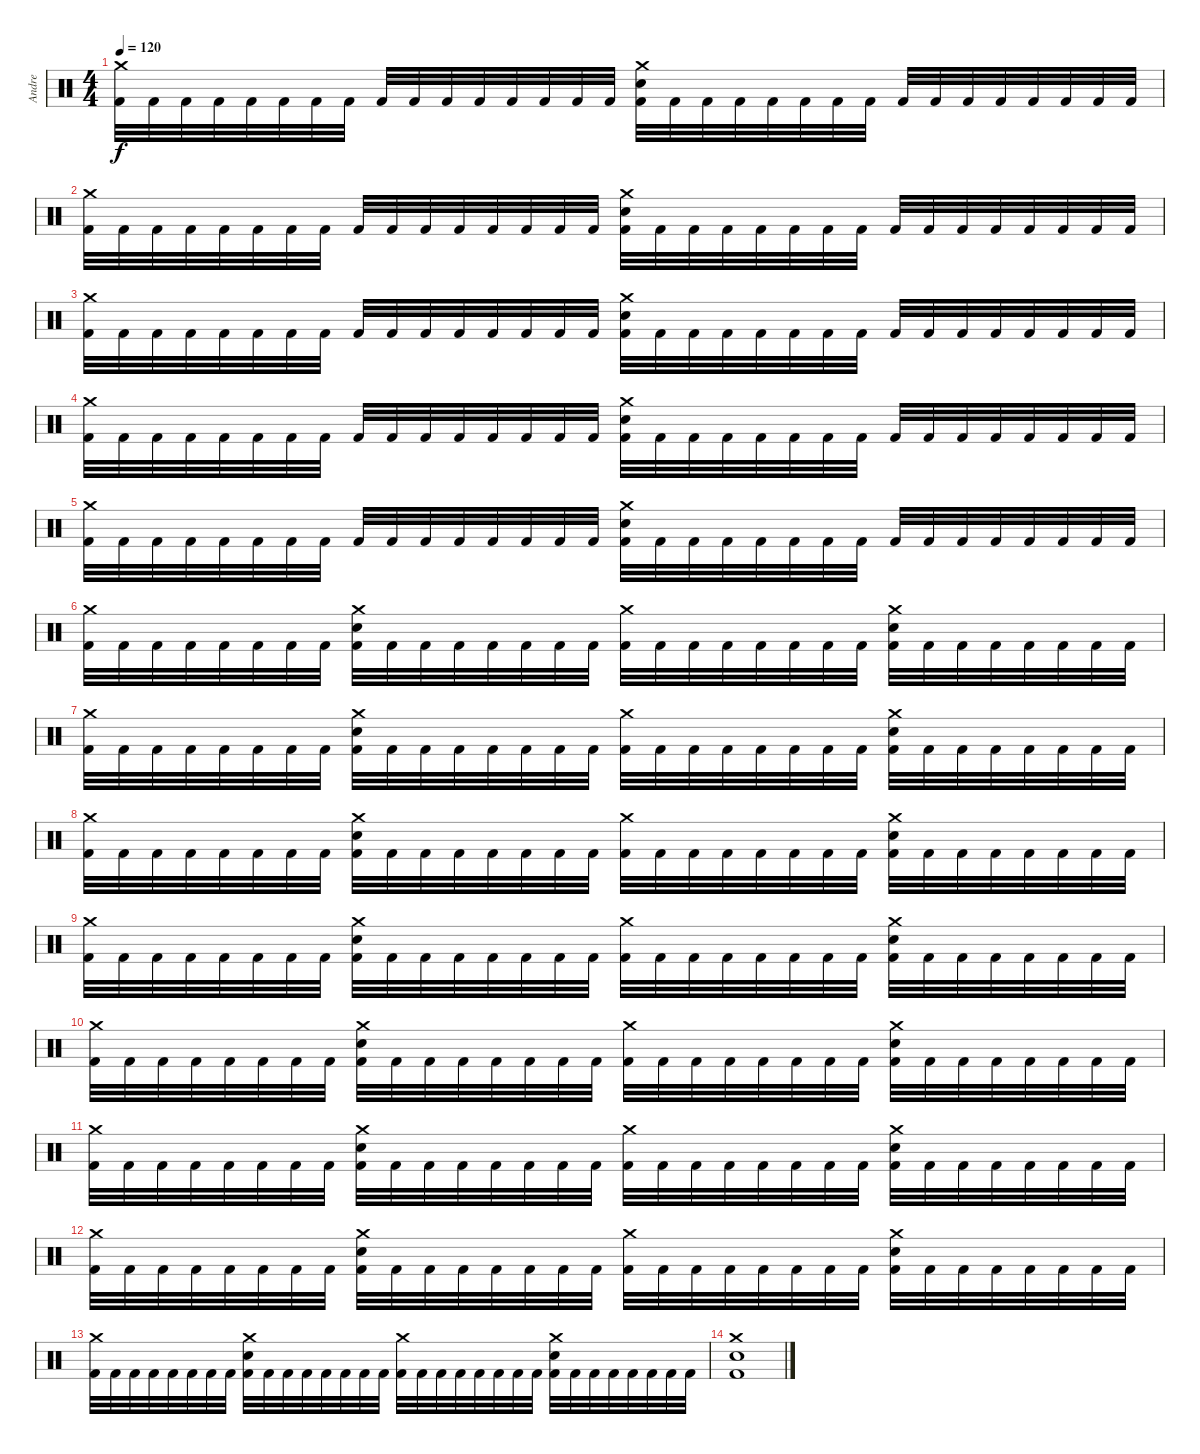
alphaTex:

\track ("Andre" "Andre") {instrument percussion}
\staff {score}
\articulation defaults
\ts (4 4)
\tempo 120
\clef neutral
\ks c
("Crash medium (hit)" "Kick (hit) 2").32{dy f} "Kick (hit) 2".32 "Kick (hit) 2".32 "Kick (hit) 2".32 "Kick (hit) 2".32 "Kick (hit) 2".32 "Kick (hit) 2".32 "Kick (hit) 2".32 "Kick (hit) 2".32 "Kick (hit) 2".32 "Kick (hit) 2".32 "Kick (hit) 2".32 "Kick (hit) 2".32 "Kick (hit) 2".32 "Kick (hit) 2".32 "Kick (hit) 2".32 ("Crash medium (hit)" "Snare (hit) 2" "Kick (hit) 2").32 "Kick (hit) 2".32 "Kick (hit) 2".32 "Kick (hit) 2".32 "Kick (hit) 2".32 "Kick (hit) 2".32 "Kick (hit) 2".32 "Kick (hit) 2".32 "Kick (hit) 2".32 "Kick (hit) 2".32 "Kick (hit) 2".32 "Kick (hit) 2".32 "Kick (hit) 2".32 "Kick (hit) 2".32 "Kick (hit) 2".32 "Kick (hit) 2".32 |
("Crash medium (hit)" "Kick (hit) 2").32 "Kick (hit) 2".32 "Kick (hit) 2".32 "Kick (hit) 2".32 "Kick (hit) 2".32 "Kick (hit) 2".32 "Kick (hit) 2".32 "Kick (hit) 2".32 "Kick (hit) 2".32 "Kick (hit) 2".32 "Kick (hit) 2".32 "Kick (hit) 2".32 "Kick (hit) 2".32 "Kick (hit) 2".32 "Kick (hit) 2".32 "Kick (hit) 2".32 ("Crash medium (hit)" "Snare (hit) 2" "Kick (hit) 2").32 "Kick (hit) 2".32 "Kick (hit) 2".32 "Kick (hit) 2".32 "Kick (hit) 2".32 "Kick (hit) 2".32 "Kick (hit) 2".32 "Kick (hit) 2".32 "Kick (hit) 2".32 "Kick (hit) 2".32 "Kick (hit) 2".32 "Kick (hit) 2".32 "Kick (hit) 2".32 "Kick (hit) 2".32 "Kick (hit) 2".32 "Kick (hit) 2".32 |
("Crash medium (hit)" "Kick (hit) 2").32 "Kick (hit) 2".32 "Kick (hit) 2".32 "Kick (hit) 2".32 "Kick (hit) 2".32 "Kick (hit) 2".32 "Kick (hit) 2".32 "Kick (hit) 2".32 "Kick (hit) 2".32 "Kick (hit) 2".32 "Kick (hit) 2".32 "Kick (hit) 2".32 "Kick (hit) 2".32 "Kick (hit) 2".32 "Kick (hit) 2".32 "Kick (hit) 2".32 ("Crash medium (hit)" "Snare (hit) 2" "Kick (hit) 2").32 "Kick (hit) 2".32 "Kick (hit) 2".32 "Kick (hit) 2".32 "Kick (hit) 2".32 "Kick (hit) 2".32 "Kick (hit) 2".32 "Kick (hit) 2".32 "Kick (hit) 2".32 "Kick (hit) 2".32 "Kick (hit) 2".32 "Kick (hit) 2".32 "Kick (hit) 2".32 "Kick (hit) 2".32 "Kick (hit) 2".32 "Kick (hit) 2".32 |
("Crash medium (hit)" "Kick (hit) 2").32 "Kick (hit) 2".32 "Kick (hit) 2".32 "Kick (hit) 2".32 "Kick (hit) 2".32 "Kick (hit) 2".32 "Kick (hit) 2".32 "Kick (hit) 2".32 "Kick (hit) 2".32 "Kick (hit) 2".32 "Kick (hit) 2".32 "Kick (hit) 2".32 "Kick (hit) 2".32 "Kick (hit) 2".32 "Kick (hit) 2".32 "Kick (hit) 2".32 ("Crash medium (hit)" "Snare (hit) 2" "Kick (hit) 2").32 "Kick (hit) 2".32 "Kick (hit) 2".32 "Kick (hit) 2".32 "Kick (hit) 2".32 "Kick (hit) 2".32 "Kick (hit) 2".32 "Kick (hit) 2".32 "Kick (hit) 2".32 "Kick (hit) 2".32 "Kick (hit) 2".32 "Kick (hit) 2".32 "Kick (hit) 2".32 "Kick (hit) 2".32 "Kick (hit) 2".32 "Kick (hit) 2".32 |
("Crash medium (hit)" "Kick (hit) 2").32 "Kick (hit) 2".32 "Kick (hit) 2".32 "Kick (hit) 2".32 "Kick (hit) 2".32 "Kick (hit) 2".32 "Kick (hit) 2".32 "Kick (hit) 2".32 "Kick (hit) 2".32 "Kick (hit) 2".32 "Kick (hit) 2".32 "Kick (hit) 2".32 "Kick (hit) 2".32 "Kick (hit) 2".32 "Kick (hit) 2".32 "Kick (hit) 2".32 ("Crash medium (hit)" "Snare (hit) 2" "Kick (hit) 2").32 "Kick (hit) 2".32 "Kick (hit) 2".32 "Kick (hit) 2".32 "Kick (hit) 2".32 "Kick (hit) 2".32 "Kick (hit) 2".32 "Kick (hit) 2".32 "Kick (hit) 2".32 "Kick (hit) 2".32 "Kick (hit) 2".32 "Kick (hit) 2".32 "Kick (hit) 2".32 "Kick (hit) 2".32 "Kick (hit) 2".32 "Kick (hit) 2".32 |
("Crash medium (hit)" "Kick (hit) 2").32 "Kick (hit) 2".32 "Kick (hit) 2".32 "Kick (hit) 2".32 "Kick (hit) 2".32 "Kick (hit) 2".32 "Kick (hit) 2".32 "Kick (hit) 2".32 ("Crash medium (hit)" "Snare (hit) 2" "Kick (hit) 2").32 "Kick (hit) 2".32 "Kick (hit) 2".32 "Kick (hit) 2".32 "Kick (hit) 2".32 "Kick (hit) 2".32 "Kick (hit) 2".32 "Kick (hit) 2".32 ("Crash medium (hit)" "Kick (hit) 2").32 "Kick (hit) 2".32 "Kick (hit) 2".32 "Kick (hit) 2".32 "Kick (hit) 2".32 "Kick (hit) 2".32 "Kick (hit) 2".32 "Kick (hit) 2".32 ("Crash medium (hit)" "Snare (hit) 2" "Kick (hit) 2").32 "Kick (hit) 2".32 "Kick (hit) 2".32 "Kick (hit) 2".32 "Kick (hit) 2".32 "Kick (hit) 2".32 "Kick (hit) 2".32 "Kick (hit) 2".32 |
("Crash medium (hit)" "Kick (hit) 2").32 "Kick (hit) 2".32 "Kick (hit) 2".32 "Kick (hit) 2".32 "Kick (hit) 2".32 "Kick (hit) 2".32 "Kick (hit) 2".32 "Kick (hit) 2".32 ("Crash medium (hit)" "Snare (hit) 2" "Kick (hit) 2").32 "Kick (hit) 2".32 "Kick (hit) 2".32 "Kick (hit) 2".32 "Kick (hit) 2".32 "Kick (hit) 2".32 "Kick (hit) 2".32 "Kick (hit) 2".32 ("Crash medium (hit)" "Kick (hit) 2").32 "Kick (hit) 2".32 "Kick (hit) 2".32 "Kick (hit) 2".32 "Kick (hit) 2".32 "Kick (hit) 2".32 "Kick (hit) 2".32 "Kick (hit) 2".32 ("Crash medium (hit)" "Snare (hit) 2" "Kick (hit) 2").32 "Kick (hit) 2".32 "Kick (hit) 2".32 "Kick (hit) 2".32 "Kick (hit) 2".32 "Kick (hit) 2".32 "Kick (hit) 2".32 "Kick (hit) 2".32 |
("Crash medium (hit)" "Kick (hit) 2").32 "Kick (hit) 2".32 "Kick (hit) 2".32 "Kick (hit) 2".32 "Kick (hit) 2".32 "Kick (hit) 2".32 "Kick (hit) 2".32 "Kick (hit) 2".32 ("Crash medium (hit)" "Snare (hit) 2" "Kick (hit) 2").32 "Kick (hit) 2".32 "Kick (hit) 2".32 "Kick (hit) 2".32 "Kick (hit) 2".32 "Kick (hit) 2".32 "Kick (hit) 2".32 "Kick (hit) 2".32 ("Crash medium (hit)" "Kick (hit) 2").32 "Kick (hit) 2".32 "Kick (hit) 2".32 "Kick (hit) 2".32 "Kick (hit) 2".32 "Kick (hit) 2".32 "Kick (hit) 2".32 "Kick (hit) 2".32 ("Crash medium (hit)" "Snare (hit) 2" "Kick (hit) 2").32 "Kick (hit) 2".32 "Kick (hit) 2".32 "Kick (hit) 2".32 "Kick (hit) 2".32 "Kick (hit) 2".32 "Kick (hit) 2".32 "Kick (hit) 2".32 |
("Crash medium (hit)" "Kick (hit) 2").32 "Kick (hit) 2".32 "Kick (hit) 2".32 "Kick (hit) 2".32 "Kick (hit) 2".32 "Kick (hit) 2".32 "Kick (hit) 2".32 "Kick (hit) 2".32 ("Crash medium (hit)" "Snare (hit) 2" "Kick (hit) 2").32 "Kick (hit) 2".32 "Kick (hit) 2".32 "Kick (hit) 2".32 "Kick (hit) 2".32 "Kick (hit) 2".32 "Kick (hit) 2".32 "Kick (hit) 2".32 ("Crash medium (hit)" "Kick (hit) 2").32 "Kick (hit) 2".32 "Kick (hit) 2".32 "Kick (hit) 2".32 "Kick (hit) 2".32 "Kick (hit) 2".32 "Kick (hit) 2".32 "Kick (hit) 2".32 ("Crash medium (hit)" "Snare (hit) 2" "Kick (hit) 2").32 "Kick (hit) 2".32 "Kick (hit) 2".32 "Kick (hit) 2".32 "Kick (hit) 2".32 "Kick (hit) 2".32 "Kick (hit) 2".32 "Kick (hit) 2".32 |
("Crash medium (hit)" "Kick (hit) 2").32 "Kick (hit) 2".32 "Kick (hit) 2".32 "Kick (hit) 2".32 "Kick (hit) 2".32 "Kick (hit) 2".32 "Kick (hit) 2".32 "Kick (hit) 2".32 ("Crash medium (hit)" "Snare (hit) 2" "Kick (hit) 2").32 "Kick (hit) 2".32 "Kick (hit) 2".32 "Kick (hit) 2".32 "Kick (hit) 2".32 "Kick (hit) 2".32 "Kick (hit) 2".32 "Kick (hit) 2".32 ("Crash medium (hit)" "Kick (hit) 2").32 "Kick (hit) 2".32 "Kick (hit) 2".32 "Kick (hit) 2".32 "Kick (hit) 2".32 "Kick (hit) 2".32 "Kick (hit) 2".32 "Kick (hit) 2".32 ("Crash medium (hit)" "Snare (hit) 2" "Kick (hit) 2").32 "Kick (hit) 2".32 "Kick (hit) 2".32 "Kick (hit) 2".32 "Kick (hit) 2".32 "Kick (hit) 2".32 "Kick (hit) 2".32 "Kick (hit) 2".32 |
("Crash medium (hit)" "Kick (hit) 2").32 "Kick (hit) 2".32 "Kick (hit) 2".32 "Kick (hit) 2".32 "Kick (hit) 2".32 "Kick (hit) 2".32 "Kick (hit) 2".32 "Kick (hit) 2".32 ("Crash medium (hit)" "Snare (hit) 2" "Kick (hit) 2").32 "Kick (hit) 2".32 "Kick (hit) 2".32 "Kick (hit) 2".32 "Kick (hit) 2".32 "Kick (hit) 2".32 "Kick (hit) 2".32 "Kick (hit) 2".32 ("Crash medium (hit)" "Kick (hit) 2").32 "Kick (hit) 2".32 "Kick (hit) 2".32 "Kick (hit) 2".32 "Kick (hit) 2".32 "Kick (hit) 2".32 "Kick (hit) 2".32 "Kick (hit) 2".32 ("Crash medium (hit)" "Snare (hit) 2" "Kick (hit) 2").32 "Kick (hit) 2".32 "Kick (hit) 2".32 "Kick (hit) 2".32 "Kick (hit) 2".32 "Kick (hit) 2".32 "Kick (hit) 2".32 "Kick (hit) 2".32 |
("Crash medium (hit)" "Kick (hit) 2").32 "Kick (hit) 2".32 "Kick (hit) 2".32 "Kick (hit) 2".32 "Kick (hit) 2".32 "Kick (hit) 2".32 "Kick (hit) 2".32 "Kick (hit) 2".32 ("Crash medium (hit)" "Snare (hit) 2" "Kick (hit) 2").32 "Kick (hit) 2".32 "Kick (hit) 2".32 "Kick (hit) 2".32 "Kick (hit) 2".32 "Kick (hit) 2".32 "Kick (hit) 2".32 "Kick (hit) 2".32 ("Crash medium (hit)" "Kick (hit) 2").32 "Kick (hit) 2".32 "Kick (hit) 2".32 "Kick (hit) 2".32 "Kick (hit) 2".32 "Kick (hit) 2".32 "Kick (hit) 2".32 "Kick (hit) 2".32 ("Crash medium (hit)" "Snare (hit) 2" "Kick (hit) 2").32 "Kick (hit) 2".32 "Kick (hit) 2".32 "Kick (hit) 2".32 "Kick (hit) 2".32 "Kick (hit) 2".32 "Kick (hit) 2".32 "Kick (hit) 2".32 |
("Crash medium (hit)" "Kick (hit) 2").32 "Kick (hit) 2".32 "Kick (hit) 2".32 "Kick (hit) 2".32 "Kick (hit) 2".32 "Kick (hit) 2".32 "Kick (hit) 2".32 "Kick (hit) 2".32 ("Crash medium (hit)" "Snare (hit) 2" "Kick (hit) 2").32 "Kick (hit) 2".32 "Kick (hit) 2".32 "Kick (hit) 2".32 "Kick (hit) 2".32 "Kick (hit) 2".32 "Kick (hit) 2".32 "Kick (hit) 2".32 ("Crash medium (hit)" "Kick (hit) 2").32 "Kick (hit) 2".32 "Kick (hit) 2".32 "Kick (hit) 2".32 "Kick (hit) 2".32 "Kick (hit) 2".32 "Kick (hit) 2".32 "Kick (hit) 2".32 ("Crash medium (hit)" "Snare (hit) 2" "Kick (hit) 2").32 "Kick (hit) 2".32 "Kick (hit) 2".32 "Kick (hit) 2".32 "Kick (hit) 2".32 "Kick (hit) 2".32 "Kick (hit) 2".32 "Kick (hit) 2".32 |
("Crash medium (hit)" "Snare (hit) 2" "Kick (hit) 2").1
